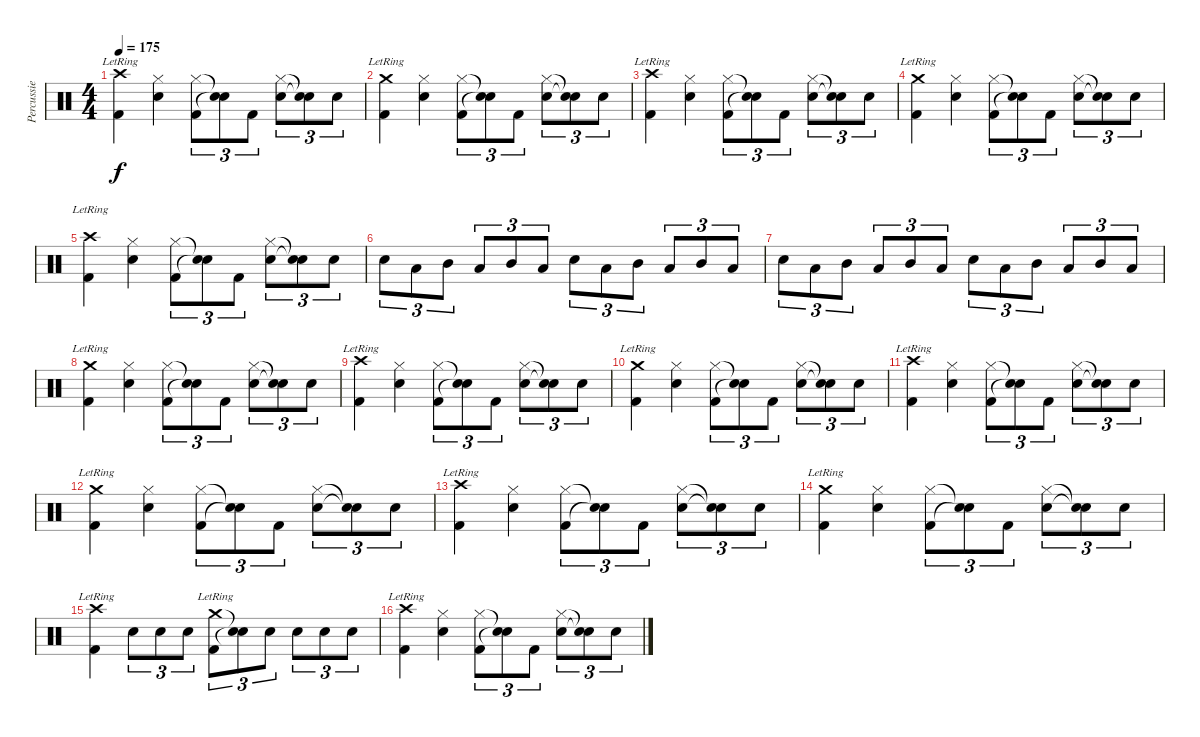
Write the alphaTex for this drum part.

\track ("Percussie" "Percussie") {instrument percussion}
\staff {score}
\articulation defaults
\ts (4 4)
\tempo 175
\clef neutral
\ks c
("Crash high (hit)"{lr} "Kick (hit) 2").4{dy f} ("Hi-Hat (closed)" "Snare (hit) 2").4 ("Hi-Hat (closed)" "Kick (hit) 2").8{tu (3 2)} ("Snare (hit)"{t} "Snare (hit)"{t}).8{tu (3 2)} "Kick (hit) 2".8{tu (3 2)} ("Hi-Hat (closed)" "Snare (hit) 2").8{tu (3 2)} ("Snare (hit)"{t} "Snare (hit)"{t}).8{tu (3 2)} "Snare (hit) 2".8{tu (3 2)} |
("Crash medium (hit)"{lr} "Kick (hit) 2").4 ("Hi-Hat (closed)" "Snare (hit) 2").4 ("Hi-Hat (closed)" "Kick (hit) 2").8{tu (3 2)} ("Snare (hit)"{t} "Snare (hit)"{t}).8{tu (3 2)} "Kick (hit) 2".8{tu (3 2)} ("Hi-Hat (closed)" "Snare (hit) 2").8{tu (3 2)} ("Snare (hit)"{t} "Snare (hit)"{t}).8{tu (3 2)} "Snare (hit) 2".8{tu (3 2)} |
("Crash high (hit)"{lr} "Kick (hit) 2").4 ("Hi-Hat (closed)" "Snare (hit) 2").4 ("Hi-Hat (closed)" "Kick (hit) 2").8{tu (3 2)} ("Snare (hit)"{t} "Snare (hit)"{t}).8{tu (3 2)} "Kick (hit) 2".8{tu (3 2)} ("Hi-Hat (closed)" "Snare (hit) 2").8{tu (3 2)} ("Snare (hit)"{t} "Snare (hit)"{t}).8{tu (3 2)} "Snare (hit) 2".8{tu (3 2)} |
("Crash medium (hit)"{lr} "Kick (hit) 2").4 ("Hi-Hat (closed)" "Snare (hit) 2").4 ("Hi-Hat (closed)" "Kick (hit) 2").8{tu (3 2)} ("Snare (hit)"{t} "Snare (hit)"{t}).8{tu (3 2)} "Kick (hit) 2".8{tu (3 2)} ("Hi-Hat (closed)" "Snare (hit) 2").8{tu (3 2)} ("Snare (hit)"{t} "Snare (hit)"{t}).8{tu (3 2)} "Snare (hit) 2".8{tu (3 2)} |
("Crash high (hit)"{lr} "Kick (hit) 2").4 ("Hi-Hat (closed)" "Snare (hit) 2").4 ("Hi-Hat (closed)" "Kick (hit) 2").8{tu (3 2)} ("Snare (hit)"{t} "Snare (hit)"{t}).8{tu (3 2)} "Kick (hit) 2".8{tu (3 2)} ("Hi-Hat (closed)" "Snare (hit) 2").8{tu (3 2)} ("Snare (hit)"{t} "Snare (hit)"{t}).8{tu (3 2)} "Snare (hit) 2".8{tu (3 2)} |
"Snare (hit) 2".8{tu (3 2)} "Low Tom (hit)".8{tu (3 2)} "Mid Tom (hit)".8{tu (3 2)} "Low Tom (hit)".8{tu (3 2)} "Mid Tom (hit)".8{tu (3 2)} "Low Tom (hit)".8{tu (3 2)} "Snare (hit) 2".8{tu (3 2)} "Low Tom (hit)".8{tu (3 2)} "Mid Tom (hit)".8{tu (3 2)} "Low Tom (hit)".8{tu (3 2)} "Mid Tom (hit)".8{tu (3 2)} "Low Tom (hit)".8{tu (3 2)} |
"Snare (hit) 2".8{tu (3 2)} "Low Tom (hit)".8{tu (3 2)} "Mid Tom (hit)".8{tu (3 2)} "Low Tom (hit)".8{tu (3 2)} "Mid Tom (hit)".8{tu (3 2)} "Low Tom (hit)".8{tu (3 2)} "Snare (hit) 2".8{tu (3 2)} "Low Tom (hit)".8{tu (3 2)} "Mid Tom (hit)".8{tu (3 2)} "Low Tom (hit)".8{tu (3 2)} "Mid Tom (hit)".8{tu (3 2)} "Low Tom (hit)".8{tu (3 2)} |
("Crash medium (hit)"{lr} "Kick (hit) 2").4 ("Hi-Hat (closed)" "Snare (hit) 2").4 ("Hi-Hat (closed)" "Kick (hit) 2").8{tu (3 2)} ("Snare (hit)"{t} "Snare (hit)"{t}).8{tu (3 2)} "Kick (hit) 2".8{tu (3 2)} ("Hi-Hat (closed)" "Snare (hit) 2").8{tu (3 2)} ("Snare (hit)"{t} "Snare (hit)"{t}).8{tu (3 2)} "Snare (hit) 2".8{tu (3 2)} |
("Crash high (hit)"{lr} "Kick (hit) 2").4 ("Hi-Hat (closed)" "Snare (hit) 2").4 ("Hi-Hat (closed)" "Kick (hit) 2").8{tu (3 2)} ("Snare (hit)"{t} "Snare (hit)"{t}).8{tu (3 2)} "Kick (hit) 2".8{tu (3 2)} ("Hi-Hat (closed)" "Snare (hit) 2").8{tu (3 2)} ("Snare (hit)"{t} "Snare (hit)"{t}).8{tu (3 2)} "Snare (hit) 2".8{tu (3 2)} |
("Crash medium (hit)"{lr} "Kick (hit) 2").4 ("Hi-Hat (closed)" "Snare (hit) 2").4 ("Hi-Hat (closed)" "Kick (hit) 2").8{tu (3 2)} ("Snare (hit)"{t} "Snare (hit)"{t}).8{tu (3 2)} "Kick (hit) 2".8{tu (3 2)} ("Hi-Hat (closed)" "Snare (hit) 2").8{tu (3 2)} ("Snare (hit)"{t} "Snare (hit)"{t}).8{tu (3 2)} "Snare (hit) 2".8{tu (3 2)} |
("Crash high (hit)"{lr} "Kick (hit) 2").4 ("Hi-Hat (closed)" "Snare (hit) 2").4 ("Hi-Hat (closed)" "Kick (hit) 2").8{tu (3 2)} ("Snare (hit)"{t} "Snare (hit)"{t}).8{tu (3 2)} "Kick (hit) 2".8{tu (3 2)} ("Hi-Hat (closed)" "Snare (hit) 2").8{tu (3 2)} ("Snare (hit)"{t} "Snare (hit)"{t}).8{tu (3 2)} "Snare (hit) 2".8{tu (3 2)} |
("Crash medium (hit)"{lr} "Kick (hit) 2").4 ("Hi-Hat (closed)" "Snare (hit) 2").4 ("Hi-Hat (closed)" "Kick (hit) 2").8{tu (3 2)} ("Snare (hit)"{t} "Snare (hit)"{t}).8{tu (3 2)} "Kick (hit) 2".8{tu (3 2)} ("Hi-Hat (closed)" "Snare (hit) 2").8{tu (3 2)} ("Snare (hit)"{t} "Snare (hit)"{t}).8{tu (3 2)} "Snare (hit) 2".8{tu (3 2)} |
("Crash high (hit)"{lr} "Kick (hit) 2").4 ("Hi-Hat (closed)" "Snare (hit) 2").4 ("Hi-Hat (closed)" "Kick (hit) 2").8{tu (3 2)} ("Snare (hit)"{t} "Snare (hit)"{t}).8{tu (3 2)} "Kick (hit) 2".8{tu (3 2)} ("Hi-Hat (closed)" "Snare (hit) 2").8{tu (3 2)} ("Snare (hit)"{t} "Snare (hit)"{t}).8{tu (3 2)} "Snare (hit) 2".8{tu (3 2)} |
("Crash medium (hit)"{lr} "Kick (hit) 2").4 ("Hi-Hat (closed)" "Snare (hit) 2").4 ("Hi-Hat (closed)" "Kick (hit) 2").8{tu (3 2)} ("Snare (hit)"{t} "Snare (hit)"{t}).8{tu (3 2)} "Kick (hit) 2".8{tu (3 2)} ("Hi-Hat (closed)" "Snare (hit) 2").8{tu (3 2)} ("Snare (hit)"{t} "Snare (hit)"{t}).8{tu (3 2)} "Snare (hit) 2".8{tu (3 2)} |
("Crash high (hit)"{lr} "Kick (hit) 2").4 "Snare (hit) 2".8{tu (3 2)} "Snare (hit) 2".8{tu (3 2)} "Snare (hit) 2".8{tu (3 2)} ("Crash medium (hit)"{lr} "Kick (hit) 2").8{tu (3 2)} ("Snare (hit)"{t} "Snare (hit)"{t}).8{tu (3 2)} "Snare (hit) 2".8{tu (3 2)} "Snare (hit) 2".8{tu (3 2)} "Snare (hit) 2".8{tu (3 2)} "Snare (hit) 2".8{tu (3 2)} |
("Crash high (hit)"{lr} "Kick (hit) 2").4 ("Hi-Hat (closed)" "Snare (hit) 2").4 ("Hi-Hat (closed)" "Kick (hit) 2").8{tu (3 2)} ("Snare (hit)"{t} "Snare (hit)"{t}).8{tu (3 2)} "Kick (hit) 2".8{tu (3 2)} ("Hi-Hat (closed)" "Snare (hit) 2").8{tu (3 2)} ("Snare (hit)"{t} "Snare (hit)"{t}).8{tu (3 2)} "Snare (hit) 2".8{tu (3 2)}
